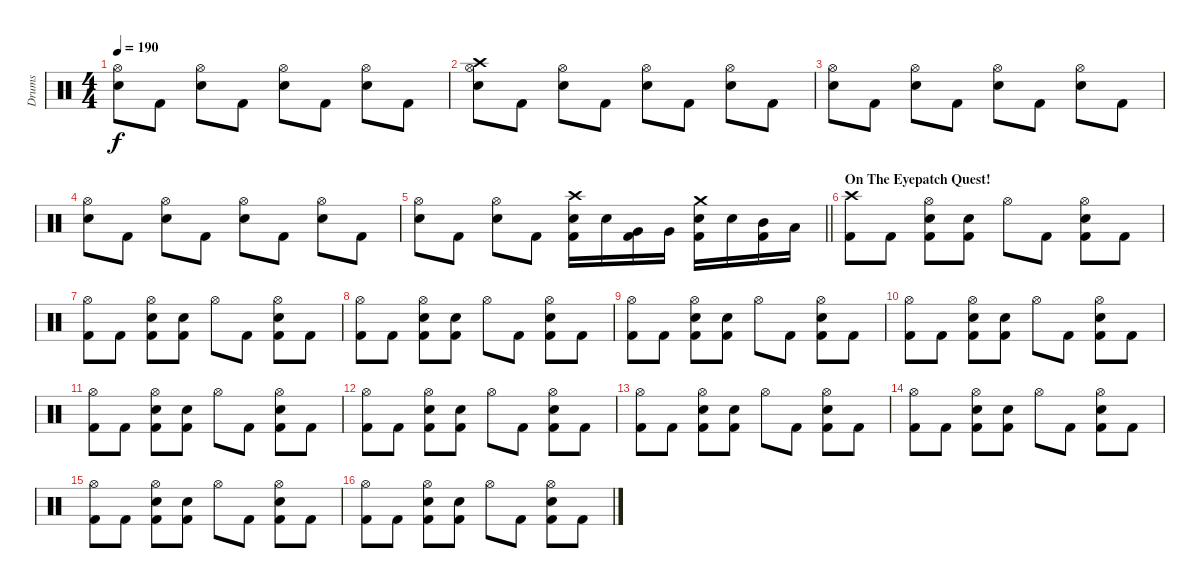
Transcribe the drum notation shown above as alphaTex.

\track ("Drums" "Drums") {instrument percussion}
\staff {score}
\articulation defaults
\ts (4 4)
\tempo 190
\clef neutral
\ks c
("Hi-Hat (open)" "Snare (hit) 2").8{dy f} "Kick (hit) 2".8 ("Hi-Hat (open)" "Snare (hit) 2").8 "Kick (hit) 2".8 ("Hi-Hat (open)" "Snare (hit) 2").8 "Kick (hit) 2".8 ("Hi-Hat (open)" "Snare (hit) 2").8 "Kick (hit) 2".8 |
("Crash high (hit)" "Hi-Hat (open)" "Snare (hit) 2").8 "Kick (hit) 2".8 ("Hi-Hat (open)" "Snare (hit) 2").8 "Kick (hit) 2".8 ("Hi-Hat (open)" "Snare (hit) 2").8 "Kick (hit) 2".8 ("Hi-Hat (open)" "Snare (hit) 2").8 "Kick (hit) 2".8 |
("Hi-Hat (open)" "Snare (hit) 2").8 "Kick (hit) 2".8 ("Hi-Hat (open)" "Snare (hit) 2").8 "Kick (hit) 2".8 ("Hi-Hat (open)" "Snare (hit) 2").8 "Kick (hit) 2".8 ("Hi-Hat (open)" "Snare (hit) 2").8 "Kick (hit) 2".8 |
("Hi-Hat (open)" "Snare (hit) 2").8 "Kick (hit) 2".8 ("Hi-Hat (open)" "Snare (hit) 2").8 "Kick (hit) 2".8 ("Hi-Hat (open)" "Snare (hit) 2").8 "Kick (hit) 2".8 ("Hi-Hat (open)" "Snare (hit) 2").8 "Kick (hit) 2".8 |
\barLineRight lightlight
("Hi-Hat (open)" "Snare (hit) 2").8 "Kick (hit) 2".8 ("Hi-Hat (open)" "Snare (hit) 2").8 "Kick (hit) 2".8 ("Crash high (hit)" "Snare (hit) 2" "Kick (hit) 2").16 "Snare (hit) 2".16 ("Very Low Tom (hit)" "Kick (hit) 2").16 "Very Low Tom (hit)".16 ("Crash medium (hit)" "Snare (hit) 2" "Kick (hit) 2").16 "Snare (hit) 2".16 ("Mid Tom (hit)" "Kick (hit) 2").16 "Low Tom (hit)".16 |
\section ("" "On The Eyepatch Quest!")
("Crash high (hit)" "Kick (hit) 2").8 "Kick (hit) 2".8 ("Hi-Hat (open)" "Snare (hit) 2" "Kick (hit) 2").8 ("Snare (hit) 2" "Kick (hit) 2").8 "Hi-Hat (open)".8 "Kick (hit) 2".8 ("Hi-Hat (open)" "Snare (hit) 2" "Kick (hit) 2").8 "Kick (hit) 2".8 |
("Hi-Hat (open)" "Kick (hit) 2").8 "Kick (hit) 2".8 ("Hi-Hat (open)" "Snare (hit) 2" "Kick (hit) 2").8 ("Snare (hit) 2" "Kick (hit) 2").8 "Hi-Hat (open)".8 "Kick (hit) 2".8 ("Hi-Hat (open)" "Snare (hit) 2" "Kick (hit) 2").8 "Kick (hit) 2".8 |
("Hi-Hat (open)" "Kick (hit) 2").8 "Kick (hit) 2".8 ("Hi-Hat (open)" "Snare (hit) 2" "Kick (hit) 2").8 ("Snare (hit) 2" "Kick (hit) 2").8 "Hi-Hat (open)".8 "Kick (hit) 2".8 ("Hi-Hat (open)" "Snare (hit) 2" "Kick (hit) 2").8 "Kick (hit) 2".8 |
("Hi-Hat (open)" "Kick (hit) 2").8 "Kick (hit) 2".8 ("Hi-Hat (open)" "Snare (hit) 2" "Kick (hit) 2").8 ("Snare (hit) 2" "Kick (hit) 2").8 "Hi-Hat (open)".8 "Kick (hit) 2".8 ("Hi-Hat (open)" "Snare (hit) 2" "Kick (hit) 2").8 "Kick (hit) 2".8 |
("Hi-Hat (open)" "Kick (hit) 2").8 "Kick (hit) 2".8 ("Hi-Hat (open)" "Snare (hit) 2" "Kick (hit) 2").8 ("Snare (hit) 2" "Kick (hit) 2").8 "Hi-Hat (open)".8 "Kick (hit) 2".8 ("Hi-Hat (open)" "Snare (hit) 2" "Kick (hit) 2").8 "Kick (hit) 2".8 |
("Hi-Hat (open)" "Kick (hit) 2").8 "Kick (hit) 2".8 ("Hi-Hat (open)" "Snare (hit) 2" "Kick (hit) 2").8 ("Snare (hit) 2" "Kick (hit) 2").8 "Hi-Hat (open)".8 "Kick (hit) 2".8 ("Hi-Hat (open)" "Snare (hit) 2" "Kick (hit) 2").8 "Kick (hit) 2".8 |
("Hi-Hat (open)" "Kick (hit) 2").8 "Kick (hit) 2".8 ("Hi-Hat (open)" "Snare (hit) 2" "Kick (hit) 2").8 ("Snare (hit) 2" "Kick (hit) 2").8 "Hi-Hat (open)".8 "Kick (hit) 2".8 ("Hi-Hat (open)" "Snare (hit) 2" "Kick (hit) 2").8 "Kick (hit) 2".8 |
("Hi-Hat (open)" "Kick (hit) 2").8 "Kick (hit) 2".8 ("Hi-Hat (open)" "Snare (hit) 2" "Kick (hit) 2").8 ("Snare (hit) 2" "Kick (hit) 2").8 "Hi-Hat (open)".8 "Kick (hit) 2".8 ("Hi-Hat (open)" "Snare (hit) 2" "Kick (hit) 2").8 "Kick (hit) 2".8 |
("Hi-Hat (open)" "Kick (hit) 2").8 "Kick (hit) 2".8 ("Hi-Hat (open)" "Snare (hit) 2" "Kick (hit) 2").8 ("Snare (hit) 2" "Kick (hit) 2").8 "Hi-Hat (open)".8 "Kick (hit) 2".8 ("Hi-Hat (open)" "Snare (hit) 2" "Kick (hit) 2").8 "Kick (hit) 2".8 |
("Hi-Hat (open)" "Kick (hit) 2").8 "Kick (hit) 2".8 ("Hi-Hat (open)" "Snare (hit) 2" "Kick (hit) 2").8 ("Snare (hit) 2" "Kick (hit) 2").8 "Hi-Hat (open)".8 "Kick (hit) 2".8 ("Hi-Hat (open)" "Snare (hit) 2" "Kick (hit) 2").8 "Kick (hit) 2".8 |
("Hi-Hat (open)" "Kick (hit) 2").8 "Kick (hit) 2".8 ("Hi-Hat (open)" "Snare (hit) 2" "Kick (hit) 2").8 ("Snare (hit) 2" "Kick (hit) 2").8 "Hi-Hat (open)".8 "Kick (hit) 2".8 ("Hi-Hat (open)" "Snare (hit) 2" "Kick (hit) 2").8 "Kick (hit) 2".8
